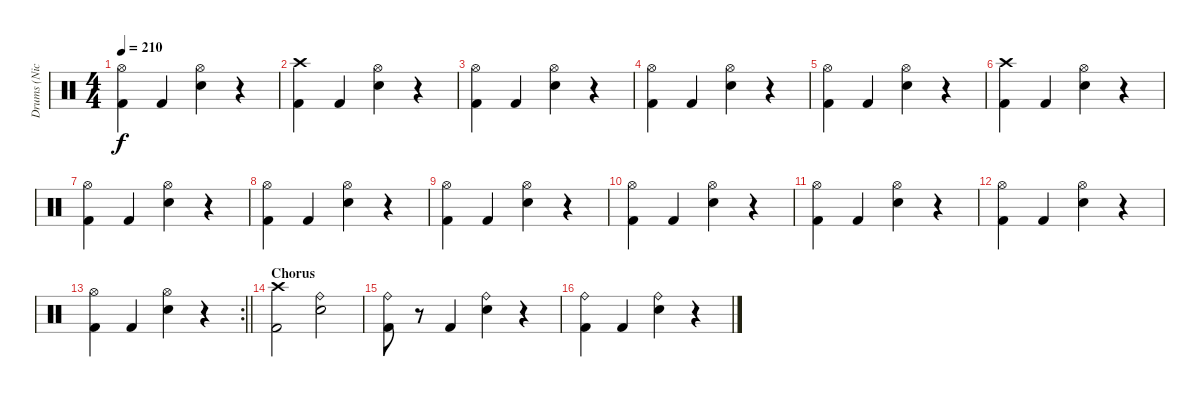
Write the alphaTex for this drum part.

\track ("Drums (Nicko McBrain)" "Drums (Nic") {instrument percussion}
\staff {score}
\articulation defaults
\ts (4 4)
\tempo 210
\clef neutral
\ks c
("Hi-Hat (open)" "Kick (hit) 2").4{dy f} "Kick (hit) 2".4 ("Hi-Hat (open)" "Electric Snare (hit)").4 r.4 |
("Crash high (hit)" "Kick (hit) 2").4 "Kick (hit) 2".4 ("Hi-Hat (open)" "Electric Snare (hit)").4 r.4 |
("Hi-Hat (open)" "Kick (hit) 2").4 "Kick (hit) 2".4 ("Hi-Hat (open)" "Electric Snare (hit)").4 r.4 |
("Hi-Hat (open)" "Kick (hit) 2").4 "Kick (hit) 2".4 ("Hi-Hat (open)" "Electric Snare (hit)").4 r.4 |
("Hi-Hat (open)" "Kick (hit) 2").4 "Kick (hit) 2".4 ("Hi-Hat (open)" "Electric Snare (hit)").4 r.4 |
("Crash high (hit)" "Kick (hit) 2").4 "Kick (hit) 2".4 ("Hi-Hat (open)" "Electric Snare (hit)").4 r.4 |
("Hi-Hat (open)" "Kick (hit) 2").4 "Kick (hit) 2".4 ("Hi-Hat (open)" "Electric Snare (hit)").4 r.4 |
("Hi-Hat (open)" "Kick (hit) 2").4 "Kick (hit) 2".4 ("Hi-Hat (open)" "Electric Snare (hit)").4 r.4 |
("Hi-Hat (open)" "Kick (hit) 2").4 "Kick (hit) 2".4 ("Hi-Hat (open)" "Electric Snare (hit)").4 r.4 |
("Hi-Hat (open)" "Kick (hit) 2").4 "Kick (hit) 2".4 ("Hi-Hat (open)" "Electric Snare (hit)").4 r.4 |
("Hi-Hat (open)" "Kick (hit) 2").4 "Kick (hit) 2".4 ("Hi-Hat (open)" "Electric Snare (hit)").4 r.4 |
("Hi-Hat (open)" "Kick (hit) 2").4 "Kick (hit) 2".4 ("Hi-Hat (open)" "Electric Snare (hit)").4 r.4 |
\rc 2
\barLineRight lightlight
("Hi-Hat (open)" "Kick (hit) 2").4 "Kick (hit) 2".4 ("Hi-Hat (open)" "Electric Snare (hit)").4 r.4 |
\section ("" "Chorus")
("Crash high (hit)" "Kick (hit) 2").2 ("Ride (bell)" "Electric Snare (hit)").2 |
("Ride (bell)" "Kick (hit) 2").8 r.8 "Kick (hit) 2".4 ("Ride (bell)" "Electric Snare (hit)").4 r.4 |
("Ride (bell)" "Kick (hit) 2").4 "Kick (hit) 2".4 ("Ride (bell)" "Electric Snare (hit)").4 r.4
